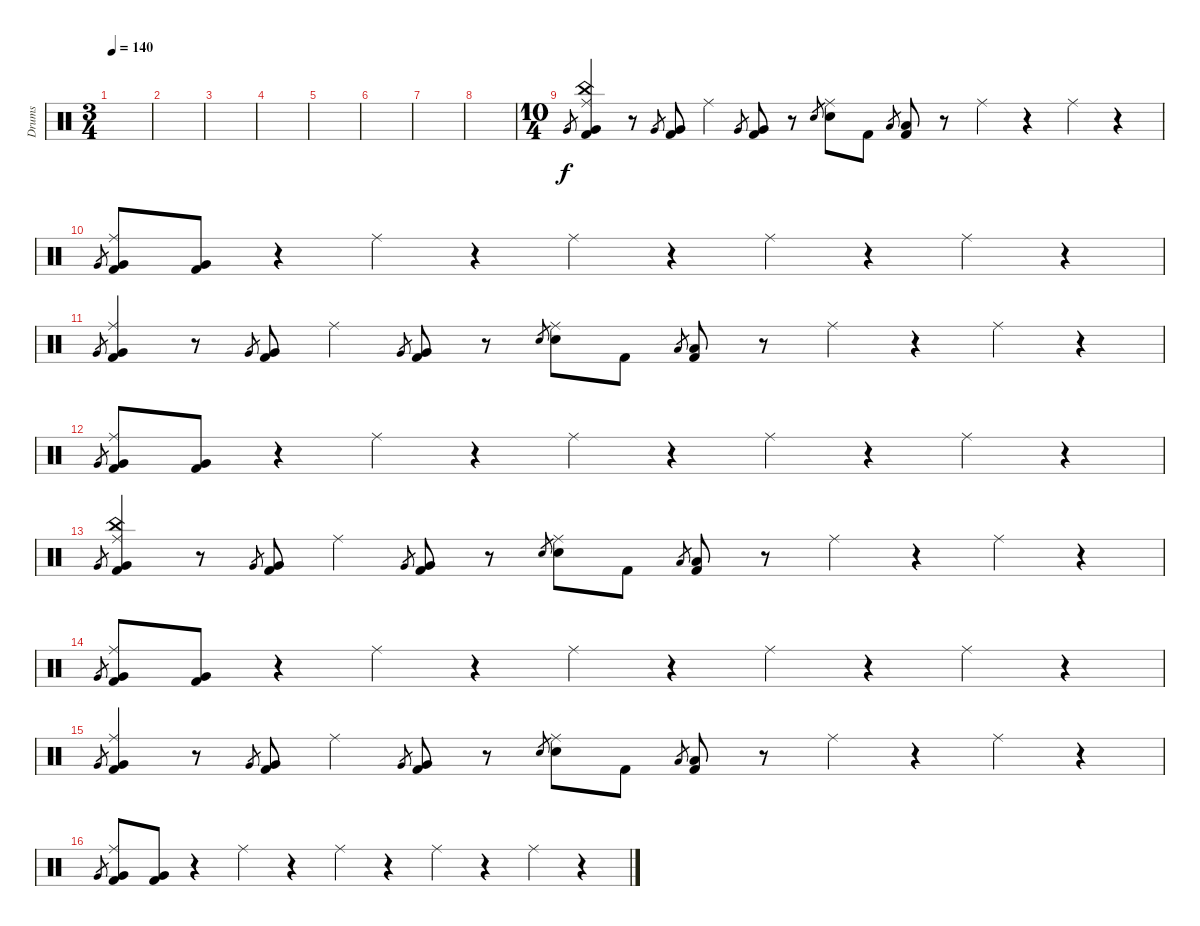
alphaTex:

\track ("Drums" "Drums") {instrument percussion}
\staff {score}
\articulation defaults
\ts (3 4)
\tempo 140
\clef neutral
\ks c
|
|
|
|
|
|
|
|
\ts (10 4)
"Very Low Tom (hit)".8{gr} ("China (hit)" "Ride (middle)" "Very Low Tom (hit)" "Kick (hit) 2").4 r.8 "Very Low Tom (hit)".8{gr} ("Very Low Tom (hit)" "Kick (hit) 2").8 "Ride (middle)".4 "Very Low Tom (hit)".8{gr} ("Very Low Tom (hit)" "Kick (hit) 2").8 r.8 "Snare (hit) 2".8{gr} ("Ride (middle)" "Snare (hit) 2").8 "Kick (hit) 2".8 "Low Tom (hit)".8{gr} ("Low Tom (hit)" "Kick (hit) 2").8 r.8 "Ride (middle)".4 r.4 "Ride (middle)".4 r.4 |
"Very Low Tom (hit)".8{gr} ("Ride (middle)" "Very Low Tom (hit)" "Kick (hit) 2").8 ("Very Low Tom (hit)" "Kick (hit) 2").8 r.4 "Ride (middle)".4 r.4 "Ride (middle)".4 r.4 "Ride (middle)".4 r.4 "Ride (middle)".4 r.4 |
"Very Low Tom (hit)".8{gr} ("Ride (middle)" "Very Low Tom (hit)" "Kick (hit) 2").4 r.8 "Very Low Tom (hit)".8{gr} ("Very Low Tom (hit)" "Kick (hit) 2").8 "Ride (middle)".4 "Very Low Tom (hit)".8{gr} ("Very Low Tom (hit)" "Kick (hit) 2").8 r.8 "Snare (hit) 2".8{gr} ("Ride (middle)" "Snare (hit) 2").8 "Kick (hit) 2".8 "Low Tom (hit)".8{gr} ("Low Tom (hit)" "Kick (hit) 2").8 r.8 "Ride (middle)".4 r.4 "Ride (middle)".4 r.4 |
"Very Low Tom (hit)".8{gr} ("Ride (middle)" "Very Low Tom (hit)" "Kick (hit) 2").8 ("Very Low Tom (hit)" "Kick (hit) 2").8 r.4 "Ride (middle)".4 r.4 "Ride (middle)".4 r.4 "Ride (middle)".4 r.4 "Ride (middle)".4 r.4 |
"Very Low Tom (hit)".8{gr} ("China (hit)" "Ride (middle)" "Very Low Tom (hit)" "Kick (hit) 2").4 r.8 "Very Low Tom (hit)".8{gr} ("Very Low Tom (hit)" "Kick (hit) 2").8 "Ride (middle)".4 "Very Low Tom (hit)".8{gr} ("Very Low Tom (hit)" "Kick (hit) 2").8 r.8 "Snare (hit) 2".8{gr} ("Ride (middle)" "Snare (hit) 2").8 "Kick (hit) 2".8 "Low Tom (hit)".8{gr} ("Low Tom (hit)" "Kick (hit) 2").8 r.8 "Ride (middle)".4 r.4 "Ride (middle)".4 r.4 |
"Very Low Tom (hit)".8{gr} ("Ride (middle)" "Very Low Tom (hit)" "Kick (hit) 2").8 ("Very Low Tom (hit)" "Kick (hit) 2").8 r.4 "Ride (middle)".4 r.4 "Ride (middle)".4 r.4 "Ride (middle)".4 r.4 "Ride (middle)".4 r.4 |
"Very Low Tom (hit)".8{gr} ("Ride (middle)" "Very Low Tom (hit)" "Kick (hit) 2").4 r.8 "Very Low Tom (hit)".8{gr} ("Very Low Tom (hit)" "Kick (hit) 2").8 "Ride (middle)".4 "Very Low Tom (hit)".8{gr} ("Very Low Tom (hit)" "Kick (hit) 2").8 r.8 "Snare (hit) 2".8{gr} ("Ride (middle)" "Snare (hit) 2").8 "Kick (hit) 2".8 "Low Tom (hit)".8{gr} ("Low Tom (hit)" "Kick (hit) 2").8 r.8 "Ride (middle)".4 r.4 "Ride (middle)".4 r.4 |
"Very Low Tom (hit)".8{gr} ("Ride (middle)" "Very Low Tom (hit)" "Kick (hit) 2").8 ("Very Low Tom (hit)" "Kick (hit) 2").8 r.4 "Ride (middle)".4 r.4 "Ride (middle)".4 r.4 "Ride (middle)".4 r.4 "Ride (middle)".4 r.4
